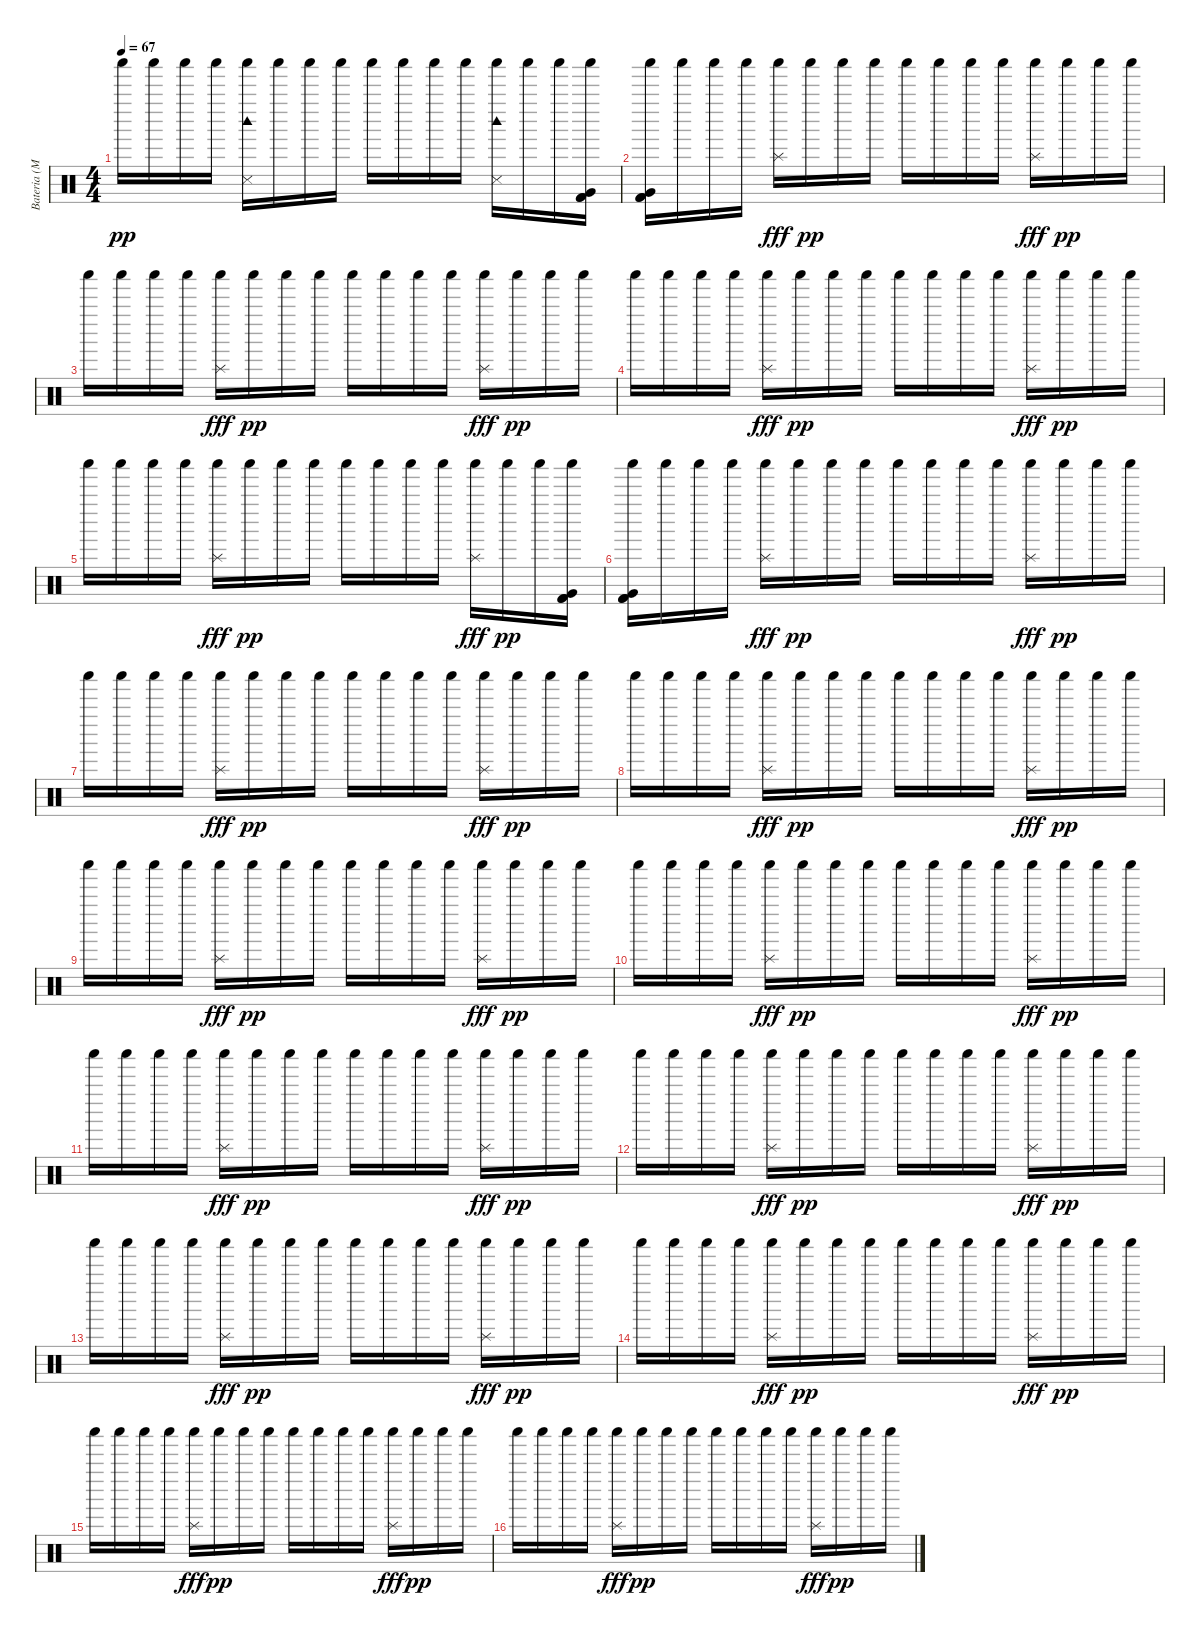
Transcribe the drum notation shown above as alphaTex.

\track ("Bateria (Matt)" "Bateria (M") {instrument percussion}
\staff {score}
\articulation defaults
\ts (4 4)
\tempo 67
\clef neutral
\ks c "Shaker (hit)".16{dy pp} "Shaker (hit)".16 "Shaker (hit)".16 "Shaker (hit)".16
("Shaker (hit)" "Metronome (hit)" "Woodblock high (hit)").16 "Shaker (hit)".16 "Shaker (hit)".16 "Shaker (hit)".16 "Shaker (hit)".16 "Shaker (hit)".16 "Shaker (hit)".16 "Shaker (hit)".16 ("Shaker (hit)" "Metronome (hit)" "Woodblock high (hit)").16 "Shaker (hit)".16 "Shaker (hit)".16 ("Shaker (hit)" "Very Low Tom (hit)" "Kick (hit) 2" "Kick (hit) 2").16 |
("Shaker (hit)" "Very Low Tom (hit)" "Kick (hit) 2" "Kick (hit) 2").16 "Shaker (hit)".16 "Shaker (hit)".16 "Shaker (hit)".16 ("Shaker (hit)" "Splash (hit)").16{dy fff} "Shaker (hit)".16{dy pp} "Shaker (hit)".16 "Shaker (hit)".16 "Shaker (hit)".16 "Shaker (hit)".16 "Shaker (hit)".16 "Shaker (hit)".16 ("Shaker (hit)" "Splash (hit)").16{dy fff} "Shaker (hit)".16{dy pp} "Shaker (hit)".16 "Shaker (hit)".16 |
"Shaker (hit)".16 "Shaker (hit)".16 "Shaker (hit)".16 "Shaker (hit)".16 ("Shaker (hit)" "Splash (hit)").16{dy fff} "Shaker (hit)".16{dy pp} "Shaker (hit)".16 "Shaker (hit)".16 "Shaker (hit)".16 "Shaker (hit)".16 "Shaker (hit)".16 "Shaker (hit)".16 ("Shaker (hit)" "Splash (hit)").16{dy fff} "Shaker (hit)".16{dy pp} "Shaker (hit)".16 "Shaker (hit)".16 |
"Shaker (hit)".16 "Shaker (hit)".16 "Shaker (hit)".16 "Shaker (hit)".16 ("Shaker (hit)" "Splash (hit)").16{dy fff} "Shaker (hit)".16{dy pp} "Shaker (hit)".16 "Shaker (hit)".16 "Shaker (hit)".16 "Shaker (hit)".16 "Shaker (hit)".16 "Shaker (hit)".16 ("Shaker (hit)" "Splash (hit)").16{dy fff} "Shaker (hit)".16{dy pp} "Shaker (hit)".16 "Shaker (hit)".16 |
"Shaker (hit)".16 "Shaker (hit)".16 "Shaker (hit)".16 "Shaker (hit)".16 ("Shaker (hit)" "Splash (hit)").16{dy fff} "Shaker (hit)".16{dy pp} "Shaker (hit)".16 "Shaker (hit)".16 "Shaker (hit)".16 "Shaker (hit)".16 "Shaker (hit)".16 "Shaker (hit)".16 ("Shaker (hit)" "Splash (hit)").16{dy fff} "Shaker (hit)".16{dy pp} "Shaker (hit)".16 ("Shaker (hit)" "Very Low Tom (hit)" "Kick (hit) 2" "Kick (hit) 2").16 |
("Shaker (hit)" "Very Low Tom (hit)" "Kick (hit) 2" "Kick (hit) 2").16 "Shaker (hit)".16 "Shaker (hit)".16 "Shaker (hit)".16 ("Shaker (hit)" "Splash (hit)").16{dy fff} "Shaker (hit)".16{dy pp} "Shaker (hit)".16 "Shaker (hit)".16 "Shaker (hit)".16 "Shaker (hit)".16 "Shaker (hit)".16 "Shaker (hit)".16 ("Shaker (hit)" "Splash (hit)").16{dy fff} "Shaker (hit)".16{dy pp} "Shaker (hit)".16 "Shaker (hit)".16 |
"Shaker (hit)".16 "Shaker (hit)".16 "Shaker (hit)".16 "Shaker (hit)".16 ("Shaker (hit)" "Splash (hit)").16{dy fff} "Shaker (hit)".16{dy pp} "Shaker (hit)".16 "Shaker (hit)".16 "Shaker (hit)".16 "Shaker (hit)".16 "Shaker (hit)".16 "Shaker (hit)".16 ("Shaker (hit)" "Splash (hit)").16{dy fff} "Shaker (hit)".16{dy pp} "Shaker (hit)".16 "Shaker (hit)".16 |
"Shaker (hit)".16 "Shaker (hit)".16 "Shaker (hit)".16 "Shaker (hit)".16 ("Shaker (hit)" "Splash (hit)").16{dy fff} "Shaker (hit)".16{dy pp} "Shaker (hit)".16 "Shaker (hit)".16 "Shaker (hit)".16 "Shaker (hit)".16 "Shaker (hit)".16 "Shaker (hit)".16 ("Shaker (hit)" "Splash (hit)").16{dy fff} "Shaker (hit)".16{dy pp} "Shaker (hit)".16 "Shaker (hit)".16 |
"Shaker (hit)".16 "Shaker (hit)".16 "Shaker (hit)".16 "Shaker (hit)".16 ("Shaker (hit)" "Splash (hit)").16{dy fff} "Shaker (hit)".16{dy pp} "Shaker (hit)".16 "Shaker (hit)".16 "Shaker (hit)".16 "Shaker (hit)".16 "Shaker (hit)".16 "Shaker (hit)".16 ("Shaker (hit)" "Splash (hit)").16{dy fff} "Shaker (hit)".16{dy pp} "Shaker (hit)".16 "Shaker (hit)".16 |
"Shaker (hit)".16 "Shaker (hit)".16 "Shaker (hit)".16 "Shaker (hit)".16 ("Shaker (hit)" "Splash (hit)").16{dy fff} "Shaker (hit)".16{dy pp} "Shaker (hit)".16 "Shaker (hit)".16 "Shaker (hit)".16 "Shaker (hit)".16 "Shaker (hit)".16 "Shaker (hit)".16 ("Shaker (hit)" "Splash (hit)").16{dy fff} "Shaker (hit)".16{dy pp} "Shaker (hit)".16 "Shaker (hit)".16 |
"Shaker (hit)".16 "Shaker (hit)".16 "Shaker (hit)".16 "Shaker (hit)".16 ("Shaker (hit)" "Splash (hit)").16{dy fff} "Shaker (hit)".16{dy pp} "Shaker (hit)".16 "Shaker (hit)".16 "Shaker (hit)".16 "Shaker (hit)".16 "Shaker (hit)".16 "Shaker (hit)".16 ("Shaker (hit)" "Splash (hit)").16{dy fff} "Shaker (hit)".16{dy pp} "Shaker (hit)".16 "Shaker (hit)".16 |
"Shaker (hit)".16 "Shaker (hit)".16 "Shaker (hit)".16 "Shaker (hit)".16 ("Shaker (hit)" "Splash (hit)").16{dy fff} "Shaker (hit)".16{dy pp} "Shaker (hit)".16 "Shaker (hit)".16 "Shaker (hit)".16 "Shaker (hit)".16 "Shaker (hit)".16 "Shaker (hit)".16 ("Shaker (hit)" "Splash (hit)").16{dy fff} "Shaker (hit)".16{dy pp} "Shaker (hit)".16 "Shaker (hit)".16 |
"Shaker (hit)".16 "Shaker (hit)".16 "Shaker (hit)".16 "Shaker (hit)".16 ("Shaker (hit)" "Splash (hit)").16{dy fff} "Shaker (hit)".16{dy pp} "Shaker (hit)".16 "Shaker (hit)".16 "Shaker (hit)".16 "Shaker (hit)".16 "Shaker (hit)".16 "Shaker (hit)".16 ("Shaker (hit)" "Splash (hit)").16{dy fff} "Shaker (hit)".16{dy pp} "Shaker (hit)".16 "Shaker (hit)".16 |
"Shaker (hit)".16 "Shaker (hit)".16 "Shaker (hit)".16 "Shaker (hit)".16 ("Shaker (hit)" "Splash (hit)").16{dy fff} "Shaker (hit)".16{dy pp} "Shaker (hit)".16 "Shaker (hit)".16 "Shaker (hit)".16 "Shaker (hit)".16 "Shaker (hit)".16 "Shaker (hit)".16 ("Shaker (hit)" "Splash (hit)").16{dy fff} "Shaker (hit)".16{dy pp} "Shaker (hit)".16 "Shaker (hit)".16 |
"Shaker (hit)".16 "Shaker (hit)".16 "Shaker (hit)".16 "Shaker (hit)".16 ("Shaker (hit)" "Splash (hit)").16{dy fff} "Shaker (hit)".16{dy pp} "Shaker (hit)".16 "Shaker (hit)".16 "Shaker (hit)".16 "Shaker (hit)".16 "Shaker (hit)".16 "Shaker (hit)".16 ("Shaker (hit)" "Splash (hit)").16{dy fff} "Shaker (hit)".16{dy pp} "Shaker (hit)".16 "Shaker (hit)".16 |
"Shaker (hit)".16 "Shaker (hit)".16 "Shaker (hit)".16 "Shaker (hit)".16 ("Shaker (hit)" "Splash (hit)").16{dy fff} "Shaker (hit)".16{dy pp} "Shaker (hit)".16 "Shaker (hit)".16 "Shaker (hit)".16 "Shaker (hit)".16 "Shaker (hit)".16 "Shaker (hit)".16 ("Shaker (hit)" "Splash (hit)").16{dy fff} "Shaker (hit)".16{dy pp} "Shaker (hit)".16 "Shaker (hit)".16
